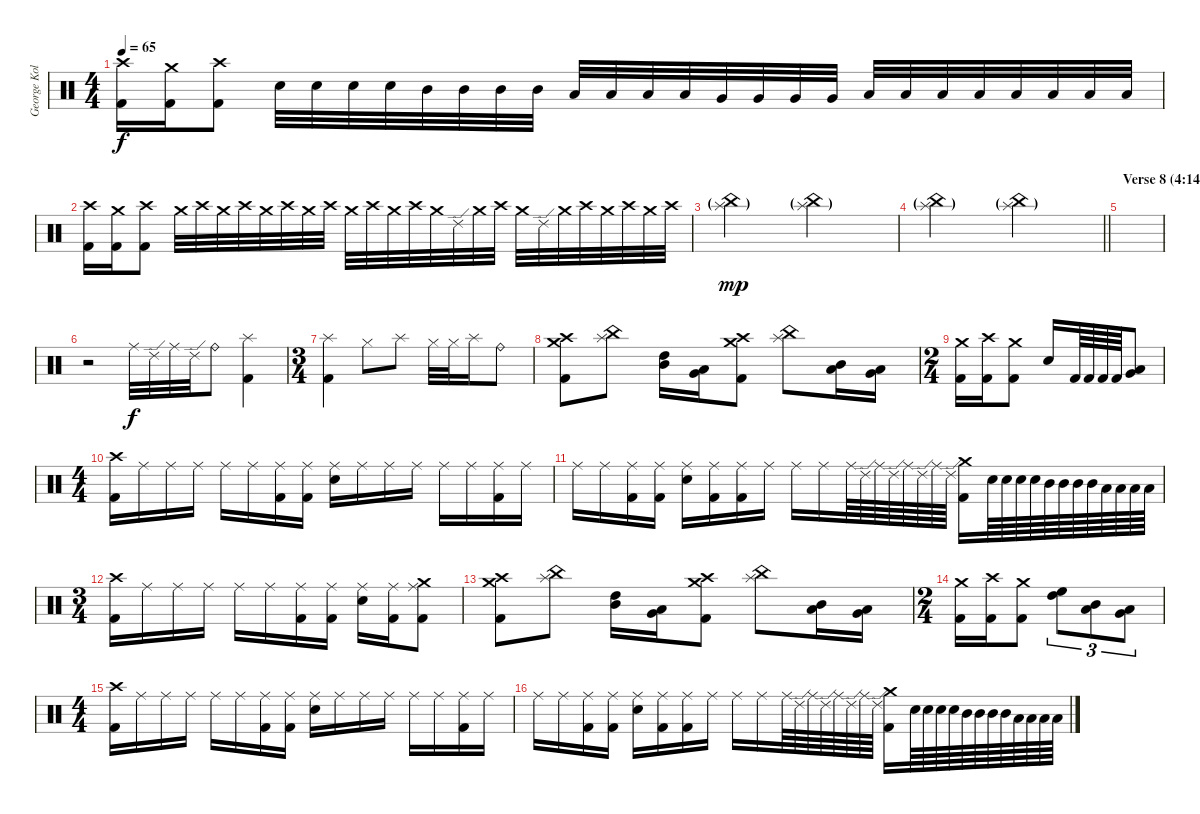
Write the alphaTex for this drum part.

\track ("George Kollias" "George Kol") {instrument percussion}
\staff {score}
\articulation defaults
\ts (4 4)
\tempo 65
\clef neutral
\ks c
("Crash high (hit)" "Kick (hit) 2").16{dy f} ("Crash medium (hit)" "Kick (hit) 2").16 ("Crash high (hit)" "Kick (hit) 2").8 "Electric Snare (hit)".32 "Electric Snare (hit)".32 "Electric Snare (hit)".32 "Electric Snare (hit)".32 "Mid Tom (hit)".32 "Mid Tom (hit)".32 "Mid Tom (hit)".32 "Mid Tom (hit)".32 "Low Tom (hit)".32 "Low Tom (hit)".32 "Low Tom (hit)".32 "Low Tom (hit)".32 "Very Low Tom (hit)".32 "Very Low Tom (hit)".32 "Very Low Tom (hit)".32 "Very Low Tom (hit)".32 "Low Floor Tom (hit)".32 "Low Floor Tom (hit)".32 "Low Floor Tom (hit)".32 "Low Floor Tom (hit)".32 "Low Floor Tom (hit)".32 "Low Floor Tom (hit)".32 "Low Floor Tom (hit)".32 "Low Floor Tom (hit)".32 |
("Crash high (hit)" "Kick (hit) 2").16 ("Crash medium (hit)" "Kick (hit) 2").16 ("Crash high (hit)" "Kick (hit) 2").8 "Crash medium (hit)".32 "Crash high (hit)".32 "Crash medium (hit)".32 "Crash high (hit)".32 "Crash medium (hit)".32 "Crash high (hit)".32 "Crash medium (hit)".32 "Crash high (hit)".32 "Crash medium (hit)".32 "Crash high (hit)".32 "Crash medium (hit)".32 "Crash high (hit)".32 "Crash medium (hit)".32 "Ride (edge) 2".32 "Crash medium (hit)".32 "Crash high (hit)".32 "Crash medium (hit)".32 "Ride (edge) 2".32 "Crash medium (hit)".32 "Crash high (hit)".32 "Crash medium (hit)".32 "Crash high (hit)".32 "Crash medium (hit)".32 "Crash high (hit)".32 |
("China (hit)"{g} "Splash (hit)"{g}).2{dy mp} ("China (hit)"{g} "Splash (hit)"{g}).2 |
\barLineRight lightlight
("China (hit)"{g} "Splash (hit)"{g}).2 ("China (hit)"{g} "Splash (hit)"{g}).2 |
\section ("" "Verse 8 (4:14)")
|
r.2 "Ride (middle)".32{dy f} "Ride (edge) 2".32 "Ride (middle)".32 "Ride (edge) 2".32 "Ride (bell)".8 ("Splash (hit)" "Kick (hit) 2").4 |
\ts (3 4)
("Splash (hit)" "Kick (hit) 2").4 "Hi-Hat (closed)".8 "Splash (hit)".8 "Hi-Hat (closed)".32 "Hi-Hat (closed)".32 "Splash (hit)".16 "Ride (bell)".8 |
("Crash high (hit)" "Crash medium (hit)" "Kick (hit) 2").8 ("China (hit)" "Splash (hit)").8 ("High Tom (hit)" "Mid Tom (hit)").16 ("Low Tom (hit)" "Very Low Tom (hit)").16 ("Crash high (hit)" "Crash medium (hit)" "Kick (hit) 2").8 ("Splash (hit)" "China (hit)").8 ("Mid Tom (hit)" "Low Tom (hit)").16 ("Very Low Tom (hit)" "Low Floor Tom (hit)").16 |
\ts (2 4)
("Crash medium (hit)" "Kick (hit) 2").16 ("Crash high (hit)" "Kick (hit) 2").16 ("Crash medium (hit)" "Kick (hit) 2").8 "Electric Snare (hit)".16 "Kick (hit) 2".64 "Kick (hit) 2".64 "Kick (hit) 2".64 "Kick (hit) 2".64 ("Low Floor Tom (hit)" "Very Low Tom (hit)").8 |
\ts (4 4)
("Crash high (hit)" "Kick (hit) 2").16 "Ride (middle)".16 "Ride (middle)".16 "Ride (middle)".16 "Ride (middle)".16 "Ride (middle)".16 ("Ride (middle)" "Kick (hit) 2").16 ("Ride (middle)" "Kick (hit) 2").16 ("Ride (middle)" "Electric Snare (hit)").16 "Ride (middle)".16 "Ride (middle)".16 "Ride (middle)".16 "Ride (middle)".16 "Ride (middle)".16 ("Ride (middle)" "Kick (hit) 2").16 "Ride (middle)".16 |
"Ride (middle)".16 "Ride (middle)".16 ("Ride (middle)" "Kick (hit) 2").16 ("Ride (middle)" "Kick (hit) 2").16 ("Ride (middle)" "Electric Snare (hit)").16 ("Ride (middle)" "Kick (hit) 2").16 ("Ride (middle)" "Kick (hit) 2").16 "Ride (middle)".16 "Ride (middle)".16 "Ride (middle)".16 "Ride (middle)".64 "Ride (edge) 2".64 "Ride (middle)".64 "Ride (edge) 2".64 "Ride (middle)".64 "Ride (edge) 2".64 "Ride (middle)".64 "Ride (edge) 2".64 ("Crash medium (hit)" "Kick (hit) 2").16 "Electric Snare (hit)".64 "Electric Snare (hit)".64 "Electric Snare (hit)".64 "Electric Snare (hit)".64 "Mid Tom (hit)".64 "Mid Tom (hit)".64 "Mid Tom (hit)".64 "Mid Tom (hit)".64 "Low Tom (hit)".64 "Low Tom (hit)".64 "Low Tom (hit)".64 "Low Tom (hit)".64 |
\ts (3 4)
("Crash high (hit)" "Kick (hit) 2").16 "Ride (middle)".16 "Ride (middle)".16 "Ride (middle)".16 "Ride (middle)".16 "Ride (middle)".16 ("Ride (middle)" "Kick (hit) 2").16 ("Ride (middle)" "Kick (hit) 2").16 ("Ride (middle)" "Electric Snare (hit)").16 ("Ride (middle)" "Kick (hit) 2").16 ("Crash medium (hit)" "Ride (middle)" "Kick (hit) 2").8 |
("Crash high (hit)" "Crash medium (hit)" "Kick (hit) 2").8 ("China (hit)" "Splash (hit)").8 ("High Tom (hit)" "Mid Tom (hit)").16 ("Low Tom (hit)" "Very Low Tom (hit)").16 ("Crash high (hit)" "Crash medium (hit)" "Kick (hit) 2").8 ("Splash (hit)" "China (hit)").8 ("Mid Tom (hit)" "Low Tom (hit)").16 ("Very Low Tom (hit)" "Low Floor Tom (hit)").16 |
\ts (2 4)
("Crash medium (hit)" "Kick (hit) 2").16 ("Crash high (hit)" "Kick (hit) 2").16 ("Crash medium (hit)" "Kick (hit) 2").8 ("High Floor Tom (hit)" "High Tom (hit)").8{tu (3 2)} ("Mid Tom (hit)" "Low Tom (hit)").8{tu (3 2)} ("Very Low Tom (hit)" "Low Floor Tom (hit)").8{tu (3 2)} |
\ts (4 4)
("Crash high (hit)" "Kick (hit) 2").16 "Ride (middle)".16 "Ride (middle)".16 "Ride (middle)".16 "Ride (middle)".16 "Ride (middle)".16 ("Ride (middle)" "Kick (hit) 2").16 ("Ride (middle)" "Kick (hit) 2").16 ("Ride (middle)" "Electric Snare (hit)").16 "Ride (middle)".16 "Ride (middle)".16 "Ride (middle)".16 "Ride (middle)".16 "Ride (middle)".16 ("Ride (middle)" "Kick (hit) 2").16 "Ride (middle)".16 |
"Ride (middle)".16 "Ride (middle)".16 ("Ride (middle)" "Kick (hit) 2").16 ("Ride (middle)" "Kick (hit) 2").16 ("Ride (middle)" "Electric Snare (hit)").16 ("Ride (middle)" "Kick (hit) 2").16 ("Ride (middle)" "Kick (hit) 2").16 "Ride (middle)".16 "Ride (middle)".16 "Ride (middle)".16 "Ride (middle)".64 "Ride (edge) 2".64 "Ride (middle)".64 "Ride (edge) 2".64 "Ride (middle)".64 "Ride (edge) 2".64 "Ride (middle)".64 "Ride (edge) 2".64 ("Crash medium (hit)" "Kick (hit) 2").16 "Electric Snare (hit)".64 "Electric Snare (hit)".64 "Electric Snare (hit)".64 "Electric Snare (hit)".64 "Mid Tom (hit)".64 "Mid Tom (hit)".64 "Mid Tom (hit)".64 "Mid Tom (hit)".64 "Low Tom (hit)".64 "Low Tom (hit)".64 "Low Tom (hit)".64 "Low Tom (hit)".64
